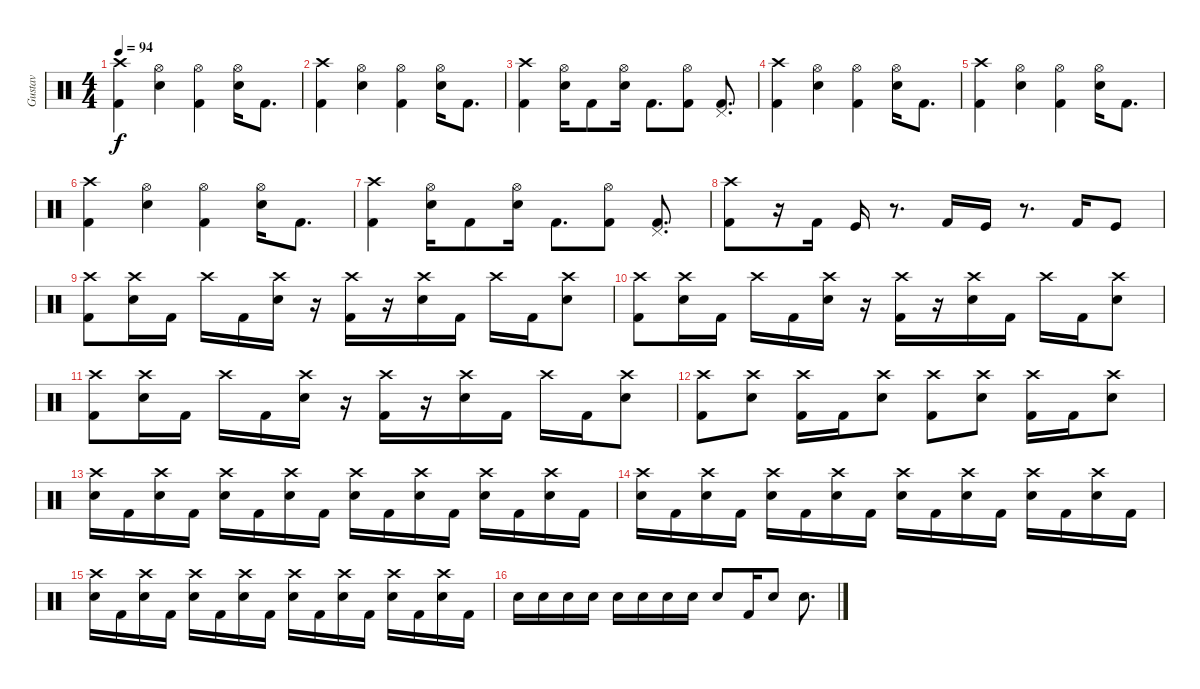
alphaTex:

\track ("Gustav" "Gustav") {instrument percussion}
\staff {score}
\articulation defaults
\ts (4 4)
\tempo 94
\clef neutral
\ks c
("Crash high (hit)" "Kick (hit) 2").4{dy f} ("Hi-Hat (open)" "Electric Snare (hit)").4 ("Hi-Hat (open)" "Kick (hit) 2").4 ("Hi-Hat (open)" "Electric Snare (hit)").16 "Kick (hit) 2".8{d} |
("Crash high (hit)" "Kick (hit) 2").4 ("Hi-Hat (open)" "Electric Snare (hit)").4 ("Hi-Hat (open)" "Kick (hit) 2").4 ("Hi-Hat (open)" "Electric Snare (hit)").16 "Kick (hit) 2".8{d} |
("Crash high (hit)" "Kick (hit) 2").4 ("Hi-Hat (open)" "Electric Snare (hit)").16 "Kick (hit) 2".8 ("Hi-Hat (open)" "Electric Snare (hit)").16 "Kick (hit) 2".8{d} ("Hi-Hat (open)" "Kick (hit) 2").8 ("Pedal Hi-Hat (hit)" "Kick (hit) 2").8{d} |
("Crash high (hit)" "Kick (hit) 2").4 ("Hi-Hat (open)" "Electric Snare (hit)").4 ("Hi-Hat (open)" "Kick (hit) 2").4 ("Hi-Hat (open)" "Electric Snare (hit)").16 "Kick (hit) 2".8{d} |
("Crash high (hit)" "Kick (hit) 2").4 ("Hi-Hat (open)" "Electric Snare (hit)").4 ("Hi-Hat (open)" "Kick (hit) 2").4 ("Hi-Hat (open)" "Electric Snare (hit)").16 "Kick (hit) 2".8{d} |
("Crash high (hit)" "Kick (hit) 2").4 ("Hi-Hat (open)" "Electric Snare (hit)").4 ("Hi-Hat (open)" "Kick (hit) 2").4 ("Hi-Hat (open)" "Electric Snare (hit)").16 "Kick (hit) 2".8{d} |
("Crash high (hit)" "Kick (hit) 2").4 ("Hi-Hat (open)" "Electric Snare (hit)").16 "Kick (hit) 2".8 ("Hi-Hat (open)" "Electric Snare (hit)").16 "Kick (hit) 2".8{d} ("Hi-Hat (open)" "Kick (hit) 2").8 ("Pedal Hi-Hat (hit)" "Kick (hit) 2").8{d} |
("Crash high (hit)" "Kick (hit) 2").8 r.16 "Kick (hit) 2".16 "Kick (hit)".16 r.8{d} "Kick (hit) 2".16 "Kick (hit)".16 r.8{d} "Kick (hit) 2".16 "Kick (hit)".8 |
("Crash high (hit)" "Kick (hit) 2").8 ("Crash high (hit)" "Electric Snare (hit)").16 "Kick (hit) 2".16 "Crash high (hit)".16 "Kick (hit) 2".16 ("Crash high (hit)" "Electric Snare (hit)").16 r.16 ("Crash high (hit)" "Kick (hit) 2").16 r.16 ("Crash high (hit)" "Electric Snare (hit)").16 "Kick (hit) 2".16 "Crash high (hit)".16 "Kick (hit) 2".16 ("Crash high (hit)" "Electric Snare (hit)").8 |
("Crash high (hit)" "Kick (hit) 2").8 ("Crash high (hit)" "Electric Snare (hit)").16 "Kick (hit) 2".16 "Crash high (hit)".16 "Kick (hit) 2".16 ("Crash high (hit)" "Electric Snare (hit)").16 r.16 ("Crash high (hit)" "Kick (hit) 2").16 r.16 ("Crash high (hit)" "Electric Snare (hit)").16 "Kick (hit) 2".16 "Crash high (hit)".16 "Kick (hit) 2".16 ("Crash high (hit)" "Electric Snare (hit)").8 |
("Crash high (hit)" "Kick (hit) 2").8 ("Crash high (hit)" "Electric Snare (hit)").16 "Kick (hit) 2".16 "Crash high (hit)".16 "Kick (hit) 2".16 ("Crash high (hit)" "Electric Snare (hit)").16 r.16 ("Crash high (hit)" "Kick (hit) 2").16 r.16 ("Crash high (hit)" "Electric Snare (hit)").16 "Kick (hit) 2".16 "Crash high (hit)".16 "Kick (hit) 2".16 ("Crash high (hit)" "Electric Snare (hit)").8 |
("Crash high (hit)" "Kick (hit) 2").8 ("Crash high (hit)" "Electric Snare (hit)").8 ("Crash high (hit)" "Kick (hit) 2").16 "Kick (hit) 2".16 ("Crash high (hit)" "Electric Snare (hit)").8 ("Crash high (hit)" "Kick (hit) 2").8 ("Crash high (hit)" "Electric Snare (hit)").8 ("Crash high (hit)" "Kick (hit) 2").16 "Kick (hit) 2".16 ("Crash high (hit)" "Electric Snare (hit)").8 |
("Crash high (hit)" "Electric Snare (hit)").16 "Kick (hit) 2".16 ("Crash high (hit)" "Electric Snare (hit)").16 "Kick (hit) 2".16 ("Crash high (hit)" "Electric Snare (hit)").16 "Kick (hit) 2".16 ("Crash high (hit)" "Electric Snare (hit)").16 "Kick (hit) 2".16 ("Crash high (hit)" "Electric Snare (hit)").16 "Kick (hit) 2".16 ("Crash high (hit)" "Electric Snare (hit)").16 "Kick (hit) 2".16 ("Crash high (hit)" "Electric Snare (hit)").16 "Kick (hit) 2".16 ("Crash high (hit)" "Electric Snare (hit)").16 "Kick (hit) 2".16 |
("Crash high (hit)" "Electric Snare (hit)").16 "Kick (hit) 2".16 ("Crash high (hit)" "Electric Snare (hit)").16 "Kick (hit) 2".16 ("Crash high (hit)" "Electric Snare (hit)").16 "Kick (hit) 2".16 ("Crash high (hit)" "Electric Snare (hit)").16 "Kick (hit) 2".16 ("Crash high (hit)" "Electric Snare (hit)").16 "Kick (hit) 2".16 ("Crash high (hit)" "Electric Snare (hit)").16 "Kick (hit) 2".16 ("Crash high (hit)" "Electric Snare (hit)").16 "Kick (hit) 2".16 ("Crash high (hit)" "Electric Snare (hit)").16 "Kick (hit) 2".16 |
("Crash high (hit)" "Electric Snare (hit)").16 "Kick (hit) 2".16 ("Crash high (hit)" "Electric Snare (hit)").16 "Kick (hit) 2".16 ("Crash high (hit)" "Electric Snare (hit)").16 "Kick (hit) 2".16 ("Crash high (hit)" "Electric Snare (hit)").16 "Kick (hit) 2".16 ("Crash high (hit)" "Electric Snare (hit)").16 "Kick (hit) 2".16 ("Crash high (hit)" "Electric Snare (hit)").16 "Kick (hit) 2".16 ("Crash high (hit)" "Electric Snare (hit)").16 "Kick (hit) 2".16 ("Crash high (hit)" "Electric Snare (hit)").16 "Kick (hit) 2".16 |
"Electric Snare (hit)".16 "Electric Snare (hit)".16 "Electric Snare (hit)".16 "Electric Snare (hit)".16 "Electric Snare (hit)".16 "Electric Snare (hit)".16 "Electric Snare (hit)".16 "Electric Snare (hit)".16 "Electric Snare (hit)".8 "Kick (hit) 2".16 "Electric Snare (hit)".8 "Electric Snare (hit)".8{d}
